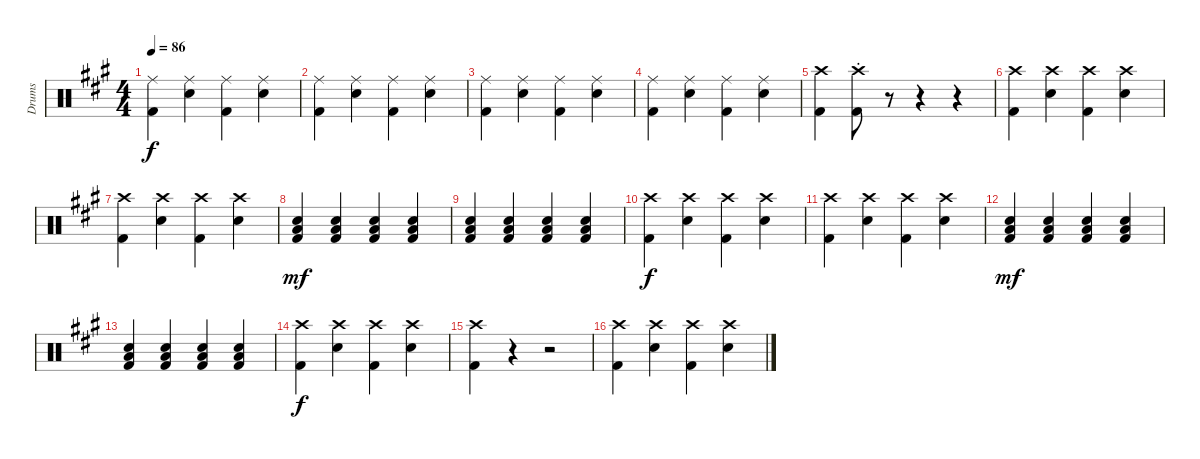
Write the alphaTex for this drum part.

\track ("Drums" "Drums") {instrument percussion}
\staff {score}
\articulation defaults
\ts (4 4)
\tempo 86
\clef neutral
\ks a
("Ride (middle)" "Kick (hit) 2").4{dy f} ("Ride (middle)" "Snare (hit) 2").4 ("Ride (middle)" "Kick (hit) 2").4 ("Ride (middle)" "Snare (hit) 2").4 |
("Ride (middle)" "Kick (hit) 2").4 ("Ride (middle)" "Snare (hit) 2").4 ("Ride (middle)" "Kick (hit) 2").4 ("Ride (middle)" "Snare (hit) 2").4 |
("Ride (middle)" "Kick (hit) 2").4 ("Ride (middle)" "Snare (hit) 2").4 ("Ride (middle)" "Kick (hit) 2").4 ("Ride (middle)" "Snare (hit) 2").4 |
("Ride (middle)" "Kick (hit) 2").4 ("Ride (middle)" "Snare (hit) 2").4 ("Ride (middle)" "Kick (hit) 2").4 ("Ride (middle)" "Snare (hit) 2").4 |
("Crash high (hit)" "Kick (hit) 2").4 ("Crash high (hit)"{st} "Kick (hit) 2"{st}).8 r.8 r.4 r.4 |
("Crash high (hit)" "Kick (hit) 2").4 ("Crash high (hit)" "Snare (hit) 2").4 ("Crash high (hit)" "Kick (hit) 2").4 ("Crash high (hit)" "Snare (hit) 2").4 |
("Crash high (hit)" "Kick (hit) 2").4 ("Crash high (hit)" "Snare (hit) 2").4 ("Crash high (hit)" "Kick (hit) 2").4 ("Crash high (hit)" "Snare (hit) 2").4 |
("Snare (hit) 2" "Low Floor Tom (hit)" "Kick (hit) 2").4{dy mf} ("Snare (hit) 2" "Low Floor Tom (hit)" "Kick (hit) 2").4 ("Snare (hit) 2" "Low Floor Tom (hit)" "Kick (hit) 2").4 ("Snare (hit) 2" "Low Floor Tom (hit)" "Kick (hit) 2").4 |
("Snare (hit) 2" "Low Floor Tom (hit)" "Kick (hit) 2").4 ("Snare (hit) 2" "Low Floor Tom (hit)" "Kick (hit) 2").4 ("Snare (hit) 2" "Low Floor Tom (hit)" "Kick (hit) 2").4 ("Snare (hit) 2" "Low Floor Tom (hit)" "Kick (hit) 2").4 |
("Crash high (hit)" "Kick (hit) 2").4{dy f} ("Crash high (hit)" "Snare (hit) 2").4 ("Crash high (hit)" "Kick (hit) 2").4 ("Crash high (hit)" "Snare (hit) 2").4 |
("Crash high (hit)" "Kick (hit) 2").4 ("Crash high (hit)" "Snare (hit) 2").4 ("Crash high (hit)" "Kick (hit) 2").4 ("Crash high (hit)" "Snare (hit) 2").4 |
("Snare (hit) 2" "Low Floor Tom (hit)" "Kick (hit) 2").4{dy mf} ("Snare (hit) 2" "Low Floor Tom (hit)" "Kick (hit) 2").4 ("Snare (hit) 2" "Low Floor Tom (hit)" "Kick (hit) 2").4 ("Snare (hit) 2" "Low Floor Tom (hit)" "Kick (hit) 2").4 |
("Snare (hit) 2" "Low Floor Tom (hit)" "Kick (hit) 2").4 ("Snare (hit) 2" "Low Floor Tom (hit)" "Kick (hit) 2").4 ("Snare (hit) 2" "Low Floor Tom (hit)" "Kick (hit) 2").4 ("Snare (hit) 2" "Low Floor Tom (hit)" "Kick (hit) 2").4 |
("Crash high (hit)" "Kick (hit) 2").4{dy f} ("Crash high (hit)" "Snare (hit) 2").4 ("Crash high (hit)" "Kick (hit) 2").4 ("Crash high (hit)" "Snare (hit) 2").4 |
("Crash high (hit)" "Kick (hit) 2").4 r.4 r.2 |
("Crash high (hit)" "Kick (hit) 2").4 ("Crash high (hit)" "Snare (hit) 2").4 ("Crash high (hit)" "Kick (hit) 2").4 ("Crash high (hit)" "Snare (hit) 2").4
